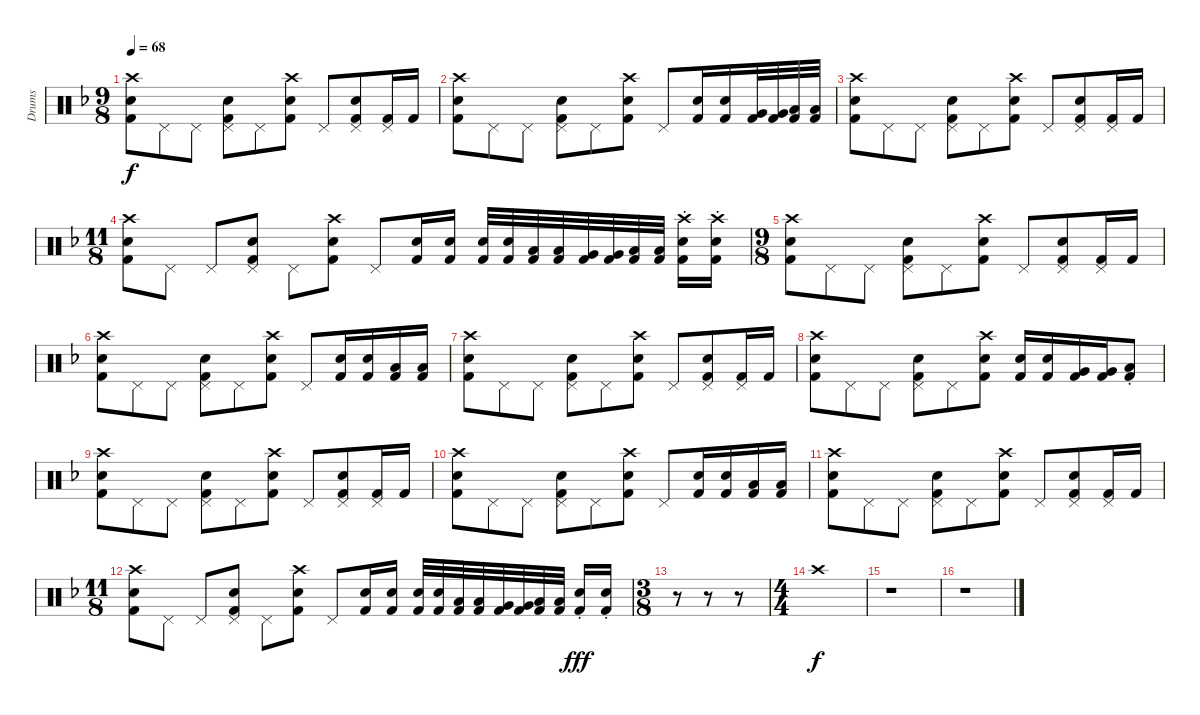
\track ("Drums" "Drums") {instrument percussion}
\staff {score}
\articulation defaults
\ts (9 8)
\tempo 68
\clef neutral
\ks dminor
("Snare (hit) 2" "Kick (hit) 2" "Crash high (hit)").8{dy f} "Pedal Hi-Hat (hit)".8 "Pedal Hi-Hat (hit)".8 ("Pedal Hi-Hat (hit)" "Snare (hit) 2" "Kick (hit) 2").8 "Pedal Hi-Hat (hit)".8 ("Snare (hit) 2" "Kick (hit) 2" "Crash high (hit)").8 "Pedal Hi-Hat (hit)".8 ("Pedal Hi-Hat (hit)" "Snare (hit) 2" "Kick (hit) 2").8 ("Pedal Hi-Hat (hit)" "Kick (hit) 2").16 "Kick (hit) 2".16 |
("Snare (hit) 2" "Kick (hit) 2" "Crash high (hit)").8 "Pedal Hi-Hat (hit)".8 "Pedal Hi-Hat (hit)".8 ("Pedal Hi-Hat (hit)" "Snare (hit) 2" "Kick (hit) 2").8 "Pedal Hi-Hat (hit)".8 ("Snare (hit) 2" "Kick (hit) 2" "Crash high (hit)").8 "Pedal Hi-Hat (hit)".8 ("Snare (hit) 2" "Kick (hit) 2").16 ("Snare (hit) 2" "Kick (hit) 2").16 ("Very Low Tom (hit)" "Kick (hit) 2").32 ("Very Low Tom (hit)" "Kick (hit) 2").32 ("Low Floor Tom (hit)" "Kick (hit) 2").32 ("Low Floor Tom (hit)" "Kick (hit) 2").32 |
("Snare (hit) 2" "Kick (hit) 2" "Crash high (hit)").8 "Pedal Hi-Hat (hit)".8 "Pedal Hi-Hat (hit)".8 ("Pedal Hi-Hat (hit)" "Snare (hit) 2" "Kick (hit) 2").8 "Pedal Hi-Hat (hit)".8 ("Snare (hit) 2" "Kick (hit) 2" "Crash high (hit)").8 "Pedal Hi-Hat (hit)".8 ("Pedal Hi-Hat (hit)" "Snare (hit) 2" "Kick (hit) 2").8 ("Pedal Hi-Hat (hit)" "Kick (hit) 2").16 "Kick (hit) 2".16 |
\ts (11 8)
("Snare (hit) 2" "Kick (hit) 2" "Crash high (hit)").8 "Pedal Hi-Hat (hit)".8 "Pedal Hi-Hat (hit)".8 ("Pedal Hi-Hat (hit)" "Snare (hit) 2" "Kick (hit) 2").8 "Pedal Hi-Hat (hit)".8 ("Snare (hit) 2" "Kick (hit) 2" "Crash high (hit)").8 "Pedal Hi-Hat (hit)".8 ("Snare (hit) 2" "Kick (hit) 2").16 ("Snare (hit) 2" "Kick (hit) 2").16 ("Snare (hit) 2" "Kick (hit) 2").32 ("Snare (hit) 2" "Kick (hit) 2").32 ("Low Tom (hit)" "Kick (hit) 2").32 ("Low Tom (hit)" "Kick (hit) 2").32 ("Very Low Tom (hit)" "Kick (hit) 2").32 ("Very Low Tom (hit)" "Kick (hit) 2").32 ("Low Floor Tom (hit)" "Kick (hit) 2").32 ("Low Floor Tom (hit)" "Kick (hit) 2").32 ("Snare (hit) 2"{st} "Kick (hit) 2"{st} "Crash high (hit)"{st}).16 ("Snare (hit) 2"{st} "Kick (hit) 2"{st} "Crash high (hit)"{st}).16 |
\ts (9 8)
("Snare (hit) 2" "Kick (hit) 2" "Crash high (hit)").8 "Pedal Hi-Hat (hit)".8 "Pedal Hi-Hat (hit)".8 ("Pedal Hi-Hat (hit)" "Snare (hit) 2" "Kick (hit) 2").8 "Pedal Hi-Hat (hit)".8 ("Snare (hit) 2" "Kick (hit) 2" "Crash high (hit)").8 "Pedal Hi-Hat (hit)".8 ("Pedal Hi-Hat (hit)" "Snare (hit) 2" "Kick (hit) 2").8 ("Pedal Hi-Hat (hit)" "Kick (hit) 2").16 "Kick (hit) 2".16 |
("Snare (hit) 2" "Kick (hit) 2" "Crash high (hit)").8 "Pedal Hi-Hat (hit)".8 "Pedal Hi-Hat (hit)".8 ("Pedal Hi-Hat (hit)" "Snare (hit) 2" "Kick (hit) 2").8 "Pedal Hi-Hat (hit)".8 ("Snare (hit) 2" "Kick (hit) 2" "Crash high (hit)").8 "Pedal Hi-Hat (hit)".8 ("Snare (hit) 2" "Kick (hit) 2").16 ("Snare (hit) 2" "Kick (hit) 2").16 ("Low Floor Tom (hit)" "Kick (hit) 2").16 ("Low Floor Tom (hit)" "Kick (hit) 2").16 |
("Snare (hit) 2" "Kick (hit) 2" "Crash high (hit)").8 "Pedal Hi-Hat (hit)".8 "Pedal Hi-Hat (hit)".8 ("Pedal Hi-Hat (hit)" "Snare (hit) 2" "Kick (hit) 2").8 "Pedal Hi-Hat (hit)".8 ("Snare (hit) 2" "Kick (hit) 2" "Crash high (hit)").8 "Pedal Hi-Hat (hit)".8 ("Pedal Hi-Hat (hit)" "Snare (hit) 2" "Kick (hit) 2").8 ("Pedal Hi-Hat (hit)" "Kick (hit) 2").16 "Kick (hit) 2".16 |
("Snare (hit) 2" "Kick (hit) 2" "Crash high (hit)").8 "Pedal Hi-Hat (hit)".8 "Pedal Hi-Hat (hit)".8 ("Pedal Hi-Hat (hit)" "Snare (hit) 2" "Kick (hit) 2").8 "Pedal Hi-Hat (hit)".8 ("Snare (hit) 2" "Kick (hit) 2" "Crash high (hit)").8 ("Snare (hit) 2" "Kick (hit) 2").16 ("Snare (hit) 2" "Kick (hit) 2").16 ("Very Low Tom (hit)" "Kick (hit) 2").16 ("Very Low Tom (hit)" "Kick (hit) 2").16 ("Low Floor Tom (hit)"{st} "Kick (hit) 2"{st}).8 |
("Snare (hit) 2" "Kick (hit) 2" "Crash high (hit)").8 "Pedal Hi-Hat (hit)".8 "Pedal Hi-Hat (hit)".8 ("Pedal Hi-Hat (hit)" "Snare (hit) 2" "Kick (hit) 2").8 "Pedal Hi-Hat (hit)".8 ("Snare (hit) 2" "Kick (hit) 2" "Crash high (hit)").8 "Pedal Hi-Hat (hit)".8 ("Pedal Hi-Hat (hit)" "Snare (hit) 2" "Kick (hit) 2").8 ("Pedal Hi-Hat (hit)" "Kick (hit) 2").16 "Kick (hit) 2".16 |
("Snare (hit) 2" "Kick (hit) 2" "Crash high (hit)").8 "Pedal Hi-Hat (hit)".8 "Pedal Hi-Hat (hit)".8 ("Pedal Hi-Hat (hit)" "Snare (hit) 2" "Kick (hit) 2").8 "Pedal Hi-Hat (hit)".8 ("Snare (hit) 2" "Kick (hit) 2" "Crash high (hit)").8 "Pedal Hi-Hat (hit)".8 ("Snare (hit) 2" "Kick (hit) 2").16 ("Snare (hit) 2" "Kick (hit) 2").16 ("Low Floor Tom (hit)" "Kick (hit) 2").16 ("Low Floor Tom (hit)" "Kick (hit) 2").16 |
("Snare (hit) 2" "Kick (hit) 2" "Crash high (hit)").8 "Pedal Hi-Hat (hit)".8 "Pedal Hi-Hat (hit)".8 ("Pedal Hi-Hat (hit)" "Snare (hit) 2" "Kick (hit) 2").8 "Pedal Hi-Hat (hit)".8 ("Snare (hit) 2" "Kick (hit) 2" "Crash high (hit)").8 "Pedal Hi-Hat (hit)".8 ("Pedal Hi-Hat (hit)" "Snare (hit) 2" "Kick (hit) 2").8 ("Pedal Hi-Hat (hit)" "Kick (hit) 2").16 "Kick (hit) 2".16 |
\ts (11 8)
("Snare (hit) 2" "Kick (hit) 2" "Crash high (hit)").8 "Pedal Hi-Hat (hit)".8 "Pedal Hi-Hat (hit)".8 ("Pedal Hi-Hat (hit)" "Snare (hit) 2" "Kick (hit) 2").8 "Pedal Hi-Hat (hit)".8 ("Snare (hit) 2" "Kick (hit) 2" "Crash high (hit)").8 "Pedal Hi-Hat (hit)".8 ("Snare (hit) 2" "Kick (hit) 2").16 ("Snare (hit) 2" "Kick (hit) 2").16 ("Snare (hit) 2" "Kick (hit) 2").32 ("Snare (hit) 2" "Kick (hit) 2").32 ("Low Tom (hit)" "Kick (hit) 2").32 ("Low Tom (hit)" "Kick (hit) 2").32 ("Very Low Tom (hit)" "Kick (hit) 2").32 ("Very Low Tom (hit)" "Kick (hit) 2").32 ("Low Floor Tom (hit)" "Kick (hit) 2").32 ("Low Floor Tom (hit)" "Kick (hit) 2").32 ("Snare (hit) 2"{st} "Kick (hit) 2"{st}).16{dy fff} ("Snare (hit) 2"{st} "Kick (hit) 2"{st}).16 |
\ts (3 8)
r.8 r.8 r.8 |
\ts (4 4)
"Crash high (hit)".1{dy f} |
r.1 |
r.1
